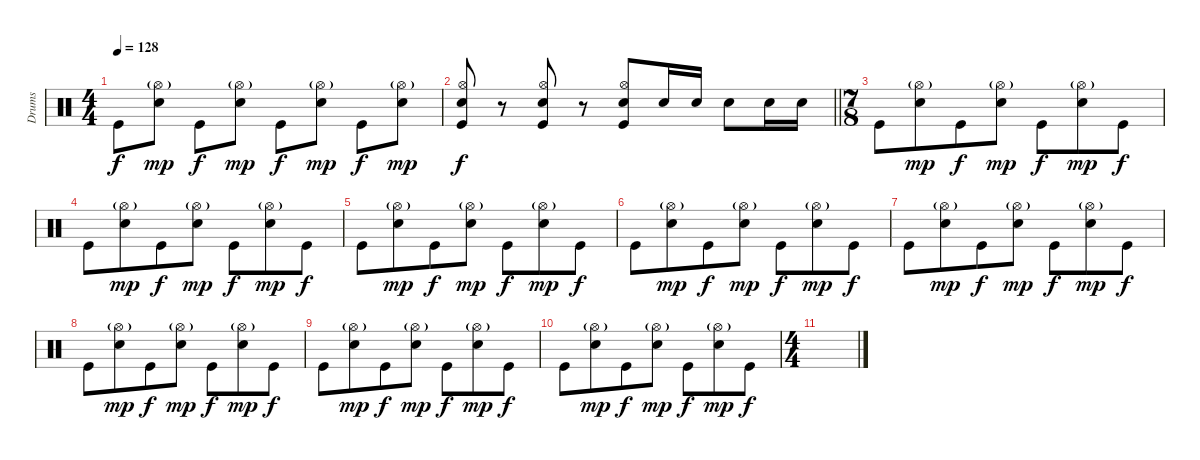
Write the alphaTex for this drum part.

\track ("Drums" "Drums") {instrument percussion}
\staff {score}
\articulation defaults
\ts (4 4)
\tempo 128
\clef neutral
\ks c "Kick (hit)".8{dy f}
("Hi-Hat (open)"{g} "Electric Snare (hit)").8{dy mp} "Kick (hit)".8{dy f} ("Hi-Hat (open)"{g} "Electric Snare (hit)").8{dy mp} "Kick (hit)".8{dy f} ("Hi-Hat (open)"{g} "Electric Snare (hit)").8{dy mp} "Kick (hit)".8{dy f} ("Hi-Hat (open)"{g} "Electric Snare (hit)").8{dy mp} |
\barLineRight lightlight
("Hi-Hat (open)" "Electric Snare (hit)" "Kick (hit)").8{dy f} r.8 ("Hi-Hat (open)" "Electric Snare (hit)" "Kick (hit)").8 r.8 ("Hi-Hat (open)" "Electric Snare (hit)" "Kick (hit)").8 "Electric Snare (hit)".16 "Electric Snare (hit)".16 "Electric Snare (hit)".8 "Electric Snare (hit)".16 "Electric Snare (hit)".16 |
\ts (7 8)
"Kick (hit)".8 ("Hi-Hat (open)"{g} "Electric Snare (hit)").8{dy mp} "Kick (hit)".8{dy f} ("Hi-Hat (open)"{g} "Electric Snare (hit)").8{dy mp} "Kick (hit)".8{dy f} ("Hi-Hat (open)"{g} "Electric Snare (hit)").8{dy mp} "Kick (hit)".8{dy f} |
"Kick (hit)".8 ("Hi-Hat (open)"{g} "Electric Snare (hit)").8{dy mp} "Kick (hit)".8{dy f} ("Hi-Hat (open)"{g} "Electric Snare (hit)").8{dy mp} "Kick (hit)".8{dy f} ("Hi-Hat (open)"{g} "Electric Snare (hit)").8{dy mp} "Kick (hit)".8{dy f} |
"Kick (hit)".8 ("Hi-Hat (open)"{g} "Electric Snare (hit)").8{dy mp} "Kick (hit)".8{dy f} ("Hi-Hat (open)"{g} "Electric Snare (hit)").8{dy mp} "Kick (hit)".8{dy f} ("Hi-Hat (open)"{g} "Electric Snare (hit)").8{dy mp} "Kick (hit)".8{dy f} |
"Kick (hit)".8 ("Hi-Hat (open)"{g} "Electric Snare (hit)").8{dy mp} "Kick (hit)".8{dy f} ("Hi-Hat (open)"{g} "Electric Snare (hit)").8{dy mp} "Kick (hit)".8{dy f} ("Hi-Hat (open)"{g} "Electric Snare (hit)").8{dy mp} "Kick (hit)".8{dy f} |
"Kick (hit)".8 ("Hi-Hat (open)"{g} "Electric Snare (hit)").8{dy mp} "Kick (hit)".8{dy f} ("Hi-Hat (open)"{g} "Electric Snare (hit)").8{dy mp} "Kick (hit)".8{dy f} ("Hi-Hat (open)"{g} "Electric Snare (hit)").8{dy mp} "Kick (hit)".8{dy f} |
"Kick (hit)".8 ("Hi-Hat (open)"{g} "Electric Snare (hit)").8{dy mp} "Kick (hit)".8{dy f} ("Hi-Hat (open)"{g} "Electric Snare (hit)").8{dy mp} "Kick (hit)".8{dy f} ("Hi-Hat (open)"{g} "Electric Snare (hit)").8{dy mp} "Kick (hit)".8{dy f} |
"Kick (hit)".8 ("Hi-Hat (open)"{g} "Electric Snare (hit)").8{dy mp} "Kick (hit)".8{dy f} ("Hi-Hat (open)"{g} "Electric Snare (hit)").8{dy mp} "Kick (hit)".8{dy f} ("Hi-Hat (open)"{g} "Electric Snare (hit)").8{dy mp} "Kick (hit)".8{dy f} |
"Kick (hit)".8 ("Hi-Hat (open)"{g} "Electric Snare (hit)").8{dy mp} "Kick (hit)".8{dy f} ("Hi-Hat (open)"{g} "Electric Snare (hit)").8{dy mp} "Kick (hit)".8{dy f} ("Hi-Hat (open)"{g} "Electric Snare (hit)").8{dy mp} "Kick (hit)".8{dy f} |
\ts (4 4)
